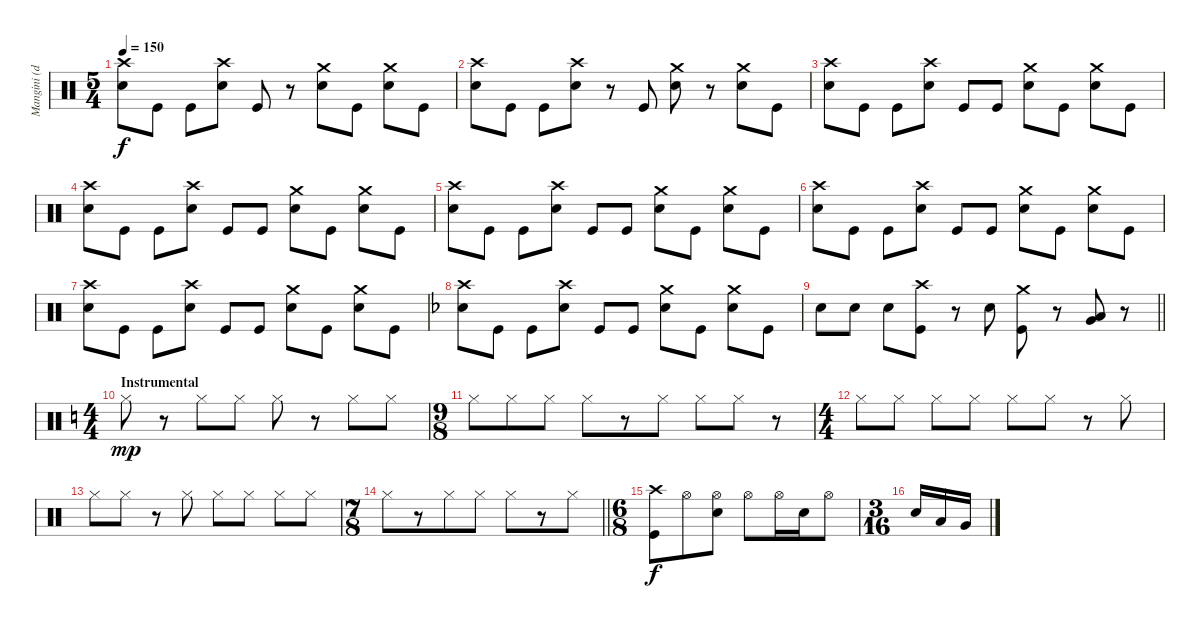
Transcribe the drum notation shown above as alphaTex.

\track ("Mangini (drums)" "Mangini (d") {instrument percussion}
\staff {score}
\articulation defaults
\ts (5 4)
\tempo 150
\clef neutral
\ks aminor
("Crash high (hit)" "Snare (hit) 2").8{dy f} "Kick (hit)".8 "Kick (hit)".8 ("Crash high (hit)" "Snare (hit) 2").8 "Kick (hit)".8 r.8 ("Crash medium (hit)" "Snare (hit) 2").8 "Kick (hit)".8 ("Crash medium (hit)" "Snare (hit) 2").8 "Kick (hit)".8 |
("Crash high (hit)" "Snare (hit) 2").8 "Kick (hit)".8 "Kick (hit)".8 ("Crash high (hit)" "Snare (hit) 2").8 r.8 "Kick (hit)".8 ("Crash medium (hit)" "Snare (hit) 2").8 r.8 ("Crash medium (hit)" "Snare (hit) 2").8 "Kick (hit)".8 |
("Crash high (hit)" "Snare (hit) 2").8 "Kick (hit)".8 "Kick (hit)".8 ("Crash high (hit)" "Snare (hit) 2").8 "Kick (hit)".8 "Kick (hit)".8 ("Crash medium (hit)" "Snare (hit) 2").8 "Kick (hit)".8 ("Crash medium (hit)" "Snare (hit) 2").8 "Kick (hit)".8 |
("Crash high (hit)" "Snare (hit) 2").8 "Kick (hit)".8 "Kick (hit)".8 ("Crash high (hit)" "Snare (hit) 2").8 "Kick (hit)".8 "Kick (hit)".8 ("Crash medium (hit)" "Snare (hit) 2").8 "Kick (hit)".8 ("Crash medium (hit)" "Snare (hit) 2").8 "Kick (hit)".8 |
("Crash high (hit)" "Snare (hit) 2").8 "Kick (hit)".8 "Kick (hit)".8 ("Crash high (hit)" "Snare (hit) 2").8 "Kick (hit)".8 "Kick (hit)".8 ("Crash medium (hit)" "Snare (hit) 2").8 "Kick (hit)".8 ("Crash medium (hit)" "Snare (hit) 2").8 "Kick (hit)".8 |
("Crash high (hit)" "Snare (hit) 2").8 "Kick (hit)".8 "Kick (hit)".8 ("Crash high (hit)" "Snare (hit) 2").8 "Kick (hit)".8 "Kick (hit)".8 ("Crash medium (hit)" "Snare (hit) 2").8 "Kick (hit)".8 ("Crash medium (hit)" "Snare (hit) 2").8 "Kick (hit)".8 |
("Crash high (hit)" "Snare (hit) 2").8 "Kick (hit)".8 "Kick (hit)".8 ("Crash high (hit)" "Snare (hit) 2").8 "Kick (hit)".8 "Kick (hit)".8 ("Crash medium (hit)" "Snare (hit) 2").8 "Kick (hit)".8 ("Crash medium (hit)" "Snare (hit) 2").8 "Kick (hit)".8 |
\ks dminor
("Crash high (hit)" "Snare (hit) 2").8 "Kick (hit)".8 "Kick (hit)".8 ("Crash high (hit)" "Snare (hit) 2").8 "Kick (hit)".8 "Kick (hit)".8 ("Crash medium (hit)" "Snare (hit) 2").8 "Kick (hit)".8 ("Crash medium (hit)" "Snare (hit) 2").8 "Kick (hit)".8 |
\barLineRight lightlight "Snare (hit) 2".8 "Snare (hit) 2".8 "Snare (hit) 2".8
("Crash high (hit)" "Kick (hit)").8 r.8 "Snare (hit) 2".8 ("Crash medium (hit)" "Kick (hit)").8 r.8 ("Low Floor Tom (hit)" "Very Low Tom (hit)").8 r.8 |
\ts (4 4)
\section ("" "Instrumental")
\ks aminor "Hi-Hat (closed)".8{dy mp}
r.8 "Hi-Hat (closed)".8 "Hi-Hat (closed)".8 "Hi-Hat (closed)".8 r.8 "Hi-Hat (closed)".8 "Hi-Hat (closed)".8 |
\ts (9 8)
"Hi-Hat (closed)".8 "Hi-Hat (closed)".8 "Hi-Hat (closed)".8 "Hi-Hat (closed)".8 r.8 "Hi-Hat (closed)".8 "Hi-Hat (closed)".8 "Hi-Hat (closed)".8 r.8 |
\ts (4 4)
"Hi-Hat (closed)".8 "Hi-Hat (closed)".8 "Hi-Hat (closed)".8 "Hi-Hat (closed)".8 "Hi-Hat (closed)".8 "Hi-Hat (closed)".8 r.8 "Hi-Hat (closed)".8 |
"Hi-Hat (closed)".8 "Hi-Hat (closed)".8 r.8 "Hi-Hat (closed)".8 "Hi-Hat (closed)".8 "Hi-Hat (closed)".8 "Hi-Hat (closed)".8 "Hi-Hat (closed)".8 |
\ts (7 8)
\barLineRight lightlight "Hi-Hat (closed)".8
r.8 "Hi-Hat (closed)".8 "Hi-Hat (closed)".8 "Hi-Hat (closed)".8 r.8 "Hi-Hat (closed)".8 |
\ts (6 8)
("Crash high (hit)" "Kick (hit)").8{dy f} "Hi-Hat (open)".8 ("Hi-Hat (open)" "Snare (hit) 2").8 "Hi-Hat (open)".8 "Hi-Hat (open)".16 "Snare (hit) 2".16 "Hi-Hat (open)".8 |
\ts (3 16)
"Snare (hit) 2".16{beam merge} "Low Tom (hit)".16{beam merge} "Very Low Tom (hit)".16
